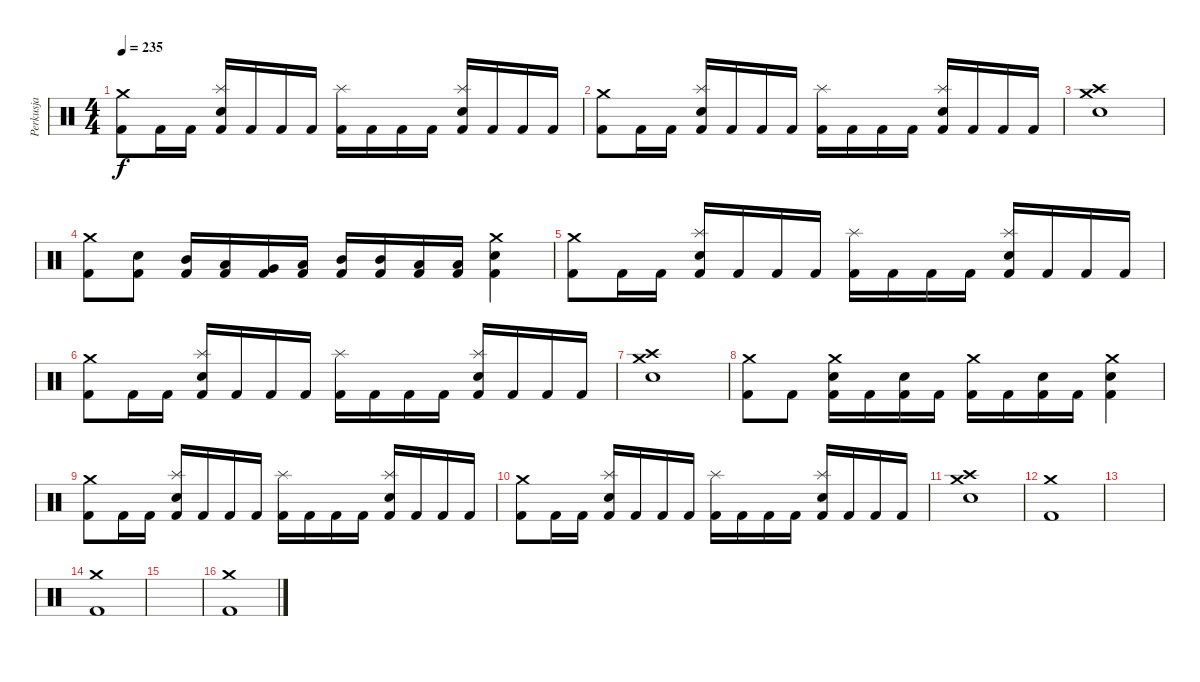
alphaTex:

\track ("Perkusja" "Perkusja") {instrument percussion}
\staff {score}
\articulation defaults
\ts (4 4)
\tempo 235
\clef neutral
\ks c
("Crash medium (hit)" "Kick (hit) 2").8{dy f} "Kick (hit) 2".16 "Kick (hit) 2".16 ("Splash (hit)" "Snare (hit) 2" "Kick (hit) 2").16 "Kick (hit) 2".16 "Kick (hit) 2".16 "Kick (hit) 2".16 ("Splash (hit)" "Kick (hit) 2").16 "Kick (hit) 2".16 "Kick (hit) 2".16 "Kick (hit) 2".16 ("Splash (hit)" "Snare (hit) 2" "Kick (hit) 2").16 "Kick (hit) 2".16 "Kick (hit) 2".16 "Kick (hit) 2".16 |
("Crash medium (hit)" "Kick (hit) 2").8 "Kick (hit) 2".16 "Kick (hit) 2".16 ("Splash (hit)" "Snare (hit) 2" "Kick (hit) 2").16 "Kick (hit) 2".16 "Kick (hit) 2".16 "Kick (hit) 2".16 ("Splash (hit)" "Kick (hit) 2").16 "Kick (hit) 2".16 "Kick (hit) 2".16 "Kick (hit) 2".16 ("Splash (hit)" "Snare (hit) 2" "Kick (hit) 2").16 "Kick (hit) 2".16 "Kick (hit) 2".16 "Kick (hit) 2".16 |
("Crash medium (hit)" "Crash high (hit)" "Snare (hit) 2").1 |
("Crash medium (hit)" "Kick (hit) 2").8 ("Snare (hit) 2" "Kick (hit) 2").8 ("Mid Tom (hit)" "Kick (hit) 2").16 ("Low Tom (hit)" "Kick (hit) 2").16 ("Very Low Tom (hit)" "Kick (hit) 2").16 ("Low Floor Tom (hit)" "Kick (hit) 2").16 ("Mid Tom (hit)" "Kick (hit) 2").16 ("Mid Tom (hit)" "Kick (hit) 2").16 ("Low Tom (hit)" "Kick (hit) 2").16 ("Low Tom (hit)" "Kick (hit) 2").16 ("Crash medium (hit)" "Electric Snare (hit)" "Kick (hit) 2").4 |
("Crash medium (hit)" "Kick (hit) 2").8 "Kick (hit) 2".16 "Kick (hit) 2".16 ("Splash (hit)" "Snare (hit) 2" "Kick (hit) 2").16 "Kick (hit) 2".16 "Kick (hit) 2".16 "Kick (hit) 2".16 ("Splash (hit)" "Kick (hit) 2").16 "Kick (hit) 2".16 "Kick (hit) 2".16 "Kick (hit) 2".16 ("Splash (hit)" "Snare (hit) 2" "Kick (hit) 2").16 "Kick (hit) 2".16 "Kick (hit) 2".16 "Kick (hit) 2".16 |
("Crash medium (hit)" "Kick (hit) 2").8 "Kick (hit) 2".16 "Kick (hit) 2".16 ("Splash (hit)" "Snare (hit) 2" "Kick (hit) 2").16 "Kick (hit) 2".16 "Kick (hit) 2".16 "Kick (hit) 2".16 ("Splash (hit)" "Kick (hit) 2").16 "Kick (hit) 2".16 "Kick (hit) 2".16 "Kick (hit) 2".16 ("Splash (hit)" "Snare (hit) 2" "Kick (hit) 2").16 "Kick (hit) 2".16 "Kick (hit) 2".16 "Kick (hit) 2".16 |
("Crash medium (hit)" "Crash high (hit)" "Snare (hit) 2").1 |
("Crash medium (hit)" "Kick (hit) 2").8 "Kick (hit) 2".8 ("Crash medium (hit)" "Electric Snare (hit)" "Kick (hit) 2").16 "Kick (hit) 2".16 ("Electric Snare (hit)" "Kick (hit) 2").16 "Kick (hit) 2".16 ("Crash medium (hit)" "Kick (hit) 2").16 "Kick (hit) 2".16 ("Electric Snare (hit)" "Kick (hit) 2").16 "Kick (hit) 2".16 ("Crash medium (hit)" "Electric Snare (hit)" "Kick (hit) 2").4 |
("Crash medium (hit)" "Kick (hit) 2").8 "Kick (hit) 2".16 "Kick (hit) 2".16 ("Splash (hit)" "Snare (hit) 2" "Kick (hit) 2").16 "Kick (hit) 2".16 "Kick (hit) 2".16 "Kick (hit) 2".16 ("Splash (hit)" "Kick (hit) 2").16 "Kick (hit) 2".16 "Kick (hit) 2".16 "Kick (hit) 2".16 ("Splash (hit)" "Snare (hit) 2" "Kick (hit) 2").16 "Kick (hit) 2".16 "Kick (hit) 2".16 "Kick (hit) 2".16 |
("Crash medium (hit)" "Kick (hit) 2").8 "Kick (hit) 2".16 "Kick (hit) 2".16 ("Splash (hit)" "Snare (hit) 2" "Kick (hit) 2").16 "Kick (hit) 2".16 "Kick (hit) 2".16 "Kick (hit) 2".16 ("Splash (hit)" "Kick (hit) 2").16 "Kick (hit) 2".16 "Kick (hit) 2".16 "Kick (hit) 2".16 ("Splash (hit)" "Snare (hit) 2" "Kick (hit) 2").16 "Kick (hit) 2".16 "Kick (hit) 2".16 "Kick (hit) 2".16 |
("Crash medium (hit)" "Crash high (hit)" "Snare (hit) 2").1 |
("Kick (hit) 2" "Crash medium (hit)").1 |
|
("Kick (hit) 2" "Crash medium (hit)").1 |
|
("Kick (hit) 2" "Crash medium (hit)").1
